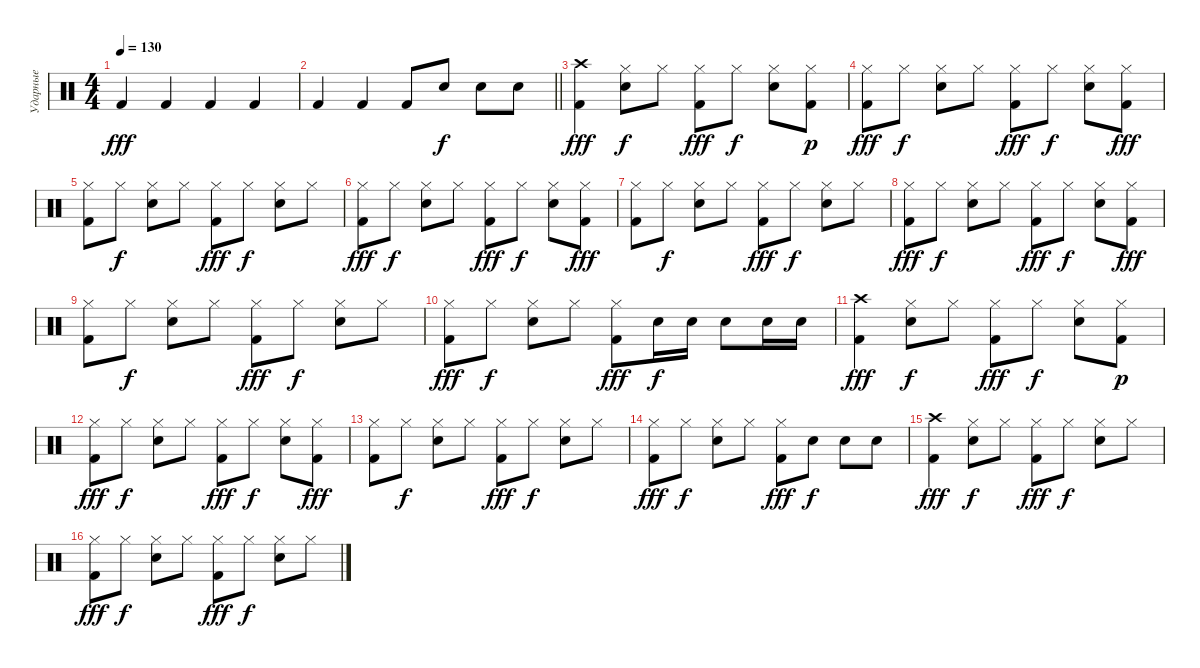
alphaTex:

\track ("Ударные" "Ударные") {instrument percussion}
\staff {score}
\articulation defaults
\ts (4 4)
\tempo 130
\clef neutral
\ks c "Kick (hit) 2".4{dy fff} "Kick (hit) 2".4 "Kick (hit) 2".4 "Kick (hit) 2".4
|
\barLineRight lightlight "Kick (hit) 2".4 "Kick (hit) 2".4 "Kick (hit) 2".8 "Snare (hit) 2".8{dy f} "Snare (hit) 2".8 "Snare (hit) 2".8
|
("Kick (hit) 2" "Crash high (hit)").4{dy fff} ("Snare (hit) 2" "Hi-Hat (closed)").8{dy f} "Hi-Hat (closed)".8 ("Kick (hit) 2" "Hi-Hat (closed)").8{dy fff} "Hi-Hat (closed)".8{dy f} ("Snare (hit) 2" "Hi-Hat (closed)").8 ("Kick (hit) 2" "Hi-Hat (closed)").8{dy p} |
("Kick (hit) 2" "Hi-Hat (closed)").8{dy fff} "Hi-Hat (closed)".8{dy f} ("Snare (hit) 2" "Hi-Hat (closed)").8 "Hi-Hat (closed)".8 ("Kick (hit) 2" "Hi-Hat (closed)").8{dy fff} "Hi-Hat (closed)".8{dy f} ("Snare (hit) 2" "Hi-Hat (closed)").8 ("Kick (hit) 2" "Hi-Hat (closed)").8{dy fff} |
("Kick (hit) 2" "Hi-Hat (closed)").8 "Hi-Hat (closed)".8{dy f} ("Snare (hit) 2" "Hi-Hat (closed)").8 "Hi-Hat (closed)".8 ("Kick (hit) 2" "Hi-Hat (closed)").8{dy fff} "Hi-Hat (closed)".8{dy f} ("Snare (hit) 2" "Hi-Hat (closed)").8 "Hi-Hat (closed)".8 |
("Kick (hit) 2" "Hi-Hat (closed)").8{dy fff} "Hi-Hat (closed)".8{dy f} ("Snare (hit) 2" "Hi-Hat (closed)").8 "Hi-Hat (closed)".8 ("Kick (hit) 2" "Hi-Hat (closed)").8{dy fff} "Hi-Hat (closed)".8{dy f} ("Snare (hit) 2" "Hi-Hat (closed)").8 ("Kick (hit) 2" "Hi-Hat (closed)").8{dy fff} |
("Kick (hit) 2" "Hi-Hat (closed)").8 "Hi-Hat (closed)".8{dy f} ("Snare (hit) 2" "Hi-Hat (closed)").8 "Hi-Hat (closed)".8 ("Kick (hit) 2" "Hi-Hat (closed)").8{dy fff} "Hi-Hat (closed)".8{dy f} ("Snare (hit) 2" "Hi-Hat (closed)").8 "Hi-Hat (closed)".8 |
("Kick (hit) 2" "Hi-Hat (closed)").8{dy fff} "Hi-Hat (closed)".8{dy f} ("Snare (hit) 2" "Hi-Hat (closed)").8 "Hi-Hat (closed)".8 ("Kick (hit) 2" "Hi-Hat (closed)").8{dy fff} "Hi-Hat (closed)".8{dy f} ("Snare (hit) 2" "Hi-Hat (closed)").8 ("Kick (hit) 2" "Hi-Hat (closed)").8{dy fff} |
("Kick (hit) 2" "Hi-Hat (closed)").8 "Hi-Hat (closed)".8{dy f} ("Snare (hit) 2" "Hi-Hat (closed)").8 "Hi-Hat (closed)".8 ("Kick (hit) 2" "Hi-Hat (closed)").8{dy fff} "Hi-Hat (closed)".8{dy f} ("Snare (hit) 2" "Hi-Hat (closed)").8 "Hi-Hat (closed)".8 |
("Kick (hit) 2" "Hi-Hat (closed)").8{dy fff} "Hi-Hat (closed)".8{dy f} ("Snare (hit) 2" "Hi-Hat (closed)").8 "Hi-Hat (closed)".8 ("Kick (hit) 2" "Hi-Hat (closed)").8{dy fff} "Snare (hit) 2".16{dy f} "Snare (hit) 2".16 "Snare (hit) 2".8 "Snare (hit) 2".16 "Snare (hit) 2".16 |
("Kick (hit) 2" "Crash high (hit)").4{dy fff} ("Snare (hit) 2" "Hi-Hat (closed)").8{dy f} "Hi-Hat (closed)".8 ("Kick (hit) 2" "Hi-Hat (closed)").8{dy fff} "Hi-Hat (closed)".8{dy f} ("Snare (hit) 2" "Hi-Hat (closed)").8 ("Kick (hit) 2" "Hi-Hat (closed)").8{dy p} |
("Kick (hit) 2" "Hi-Hat (closed)").8{dy fff} "Hi-Hat (closed)".8{dy f} ("Snare (hit) 2" "Hi-Hat (closed)").8 "Hi-Hat (closed)".8 ("Kick (hit) 2" "Hi-Hat (closed)").8{dy fff} "Hi-Hat (closed)".8{dy f} ("Snare (hit) 2" "Hi-Hat (closed)").8 ("Kick (hit) 2" "Hi-Hat (closed)").8{dy fff} |
("Kick (hit) 2" "Hi-Hat (closed)").8 "Hi-Hat (closed)".8{dy f} ("Snare (hit) 2" "Hi-Hat (closed)").8 "Hi-Hat (closed)".8 ("Kick (hit) 2" "Hi-Hat (closed)").8{dy fff} "Hi-Hat (closed)".8{dy f} ("Snare (hit) 2" "Hi-Hat (closed)").8 "Hi-Hat (closed)".8 |
("Kick (hit) 2" "Hi-Hat (closed)").8{dy fff} "Hi-Hat (closed)".8{dy f} ("Snare (hit) 2" "Hi-Hat (closed)").8 "Hi-Hat (closed)".8 ("Kick (hit) 2" "Hi-Hat (closed)").8{dy fff} "Snare (hit) 2".8{dy f} "Snare (hit) 2".8 "Snare (hit) 2".8 |
("Kick (hit) 2" "Crash high (hit)").4{dy fff} ("Snare (hit) 2" "Hi-Hat (closed)").8{dy f} "Hi-Hat (closed)".8 ("Kick (hit) 2" "Hi-Hat (closed)").8{dy fff} "Hi-Hat (closed)".8{dy f} ("Snare (hit) 2" "Hi-Hat (closed)").8 "Hi-Hat (closed)".8 |
("Kick (hit) 2" "Hi-Hat (closed)").8{dy fff} "Hi-Hat (closed)".8{dy f} ("Snare (hit) 2" "Hi-Hat (closed)").8 "Hi-Hat (closed)".8 ("Kick (hit) 2" "Hi-Hat (closed)").8{dy fff} "Hi-Hat (closed)".8{dy f} ("Snare (hit) 2" "Hi-Hat (closed)").8 "Hi-Hat (closed)".8
